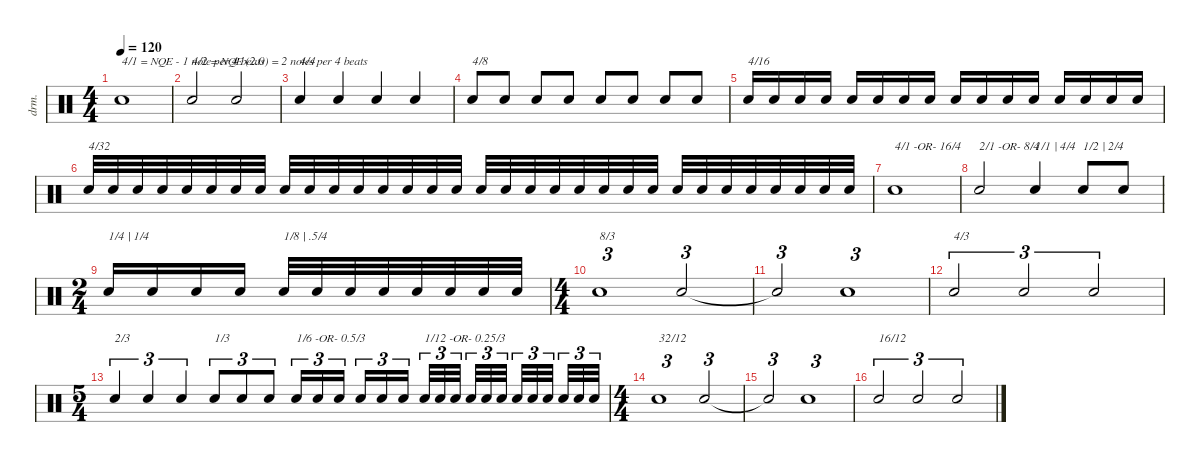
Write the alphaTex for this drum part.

\defaultSystemsLayout 4
\hideDynamics
\bracketExtendMode nobrackets
\otherSystemsTrackNameOrientation horizontal
\track ("Drumkit" "drm.") {instrument percussion}
\staff {score}
\articulation defaults
\ts (4 4)
\tempo 120
\clef neutral
\ks c "Snare (hit) 2".1{txt "4/1 = NQE - 1 note per 4 beats" dy mf beam Up}
|
"Snare (hit) 2".2{txt "4/2 = NQE (2.0) = 2 notes per 4 beats" beam Up} "Snare (hit) 2".2{beam Up} |
"Snare (hit) 2".4{txt "4/4" beam Up} "Snare (hit) 2".4{beam Up} "Snare (hit) 2".4{beam Up} "Snare (hit) 2".4{beam Up} |
"Snare (hit) 2".8{txt "4/8" beam Up} "Snare (hit) 2".8{beam Up} "Snare (hit) 2".8{beam Up} "Snare (hit) 2".8{beam Up} "Snare (hit) 2".8{beam Up} "Snare (hit) 2".8{beam Up} "Snare (hit) 2".8{beam Up} "Snare (hit) 2".8{beam Up} |
"Snare (hit) 2".16{txt "4/16" beam Up} "Snare (hit) 2".16{beam Up} "Snare (hit) 2".16{beam Up} "Snare (hit) 2".16{beam Up} "Snare (hit) 2".16{beam Up} "Snare (hit) 2".16{beam Up} "Snare (hit) 2".16{beam Up} "Snare (hit) 2".16{beam Up} "Snare (hit) 2".16{beam Up} "Snare (hit) 2".16{beam Up} "Snare (hit) 2".16{beam Up} "Snare (hit) 2".16{beam Up} "Snare (hit) 2".16{beam Up} "Snare (hit) 2".16{beam Up} "Snare (hit) 2".16{beam Up} "Snare (hit) 2".16{beam Up} |
"Snare (hit) 2".32{txt "4/32" beam Up} "Snare (hit) 2".32{beam Up} "Snare (hit) 2".32{beam Up} "Snare (hit) 2".32{beam Up} "Snare (hit) 2".32{beam Up} "Snare (hit) 2".32{beam Up} "Snare (hit) 2".32{beam Up} "Snare (hit) 2".32{beam Up} "Snare (hit) 2".32{beam Up} "Snare (hit) 2".32{beam Up} "Snare (hit) 2".32{beam Up} "Snare (hit) 2".32{beam Up} "Snare (hit) 2".32{beam Up} "Snare (hit) 2".32{beam Up} "Snare (hit) 2".32{beam Up} "Snare (hit) 2".32{beam Up} "Snare (hit) 2".32{beam Up} "Snare (hit) 2".32{beam Up} "Snare (hit) 2".32{beam Up} "Snare (hit) 2".32{beam Up} "Snare (hit) 2".32{beam Up} "Snare (hit) 2".32{beam Up} "Snare (hit) 2".32{beam Up} "Snare (hit) 2".32{beam Up} "Snare (hit) 2".32{beam Up} "Snare (hit) 2".32{beam Up} "Snare (hit) 2".32{beam Up} "Snare (hit) 2".32{beam Up} "Snare (hit) 2".32{beam Up} "Snare (hit) 2".32{beam Up} "Snare (hit) 2".32{beam Up} "Snare (hit) 2".32{beam Up} |
"Snare (hit) 2".1{txt "4/1 -OR- 16/4" beam Up} |
"Snare (hit) 2".2{txt "2/1 -OR- 8/4" beam Up} "Snare (hit) 2".4{txt "1/1 | 4/4" beam Up} "Snare (hit) 2".8{txt "1/2 | 2/4" beam Up} "Snare (hit) 2".8{beam Up} |
\ts (2 4)
\beaming (8 2 2)
"Snare (hit) 2".16{txt "1/4 | 1/4" beam Up} "Snare (hit) 2".16{beam Up} "Snare (hit) 2".16{beam Up} "Snare (hit) 2".16{beam Up} "Snare (hit) 2".32{txt "1/8 | .5/4" beam Up} "Snare (hit) 2".32{beam Up} "Snare (hit) 2".32{beam Up} "Snare (hit) 2".32{beam Up} "Snare (hit) 2".32{beam Up} "Snare (hit) 2".32{beam Up} "Snare (hit) 2".32{beam Up} "Snare (hit) 2".32{beam Up} |
\ts (4 4)
"Snare (hit) 2".1{tu (3 2) txt "8/3" beam Up} "Snare (hit) 2".2{tu (3 2) beam Up} |
"Snare (hit) 2"{t}.2{tu (3 2) beam Up} "Snare (hit) 2".1{tu (3 2) beam Up} |
"Snare (hit) 2".2{tu (3 2) txt "4/3" beam Up} "Snare (hit) 2".2{tu (3 2) beam Up} "Snare (hit) 2".2{tu (3 2) beam Up} |
\ts (5 4)
\beaming (8 6 4)
"Snare (hit) 2".4{tu (3 2) txt "2/3" beam Up} "Snare (hit) 2".4{tu (3 2) beam Up} "Snare (hit) 2".4{tu (3 2) beam Up} "Snare (hit) 2".8{tu (3 2) txt "1/3" beam Up} "Snare (hit) 2".8{tu (3 2) beam Up} "Snare (hit) 2".8{tu (3 2) beam Up} "Snare (hit) 2".16{tu (3 2) txt "1/6 -OR- 0.5/3" beam Up} "Snare (hit) 2".16{tu (3 2) beam Up} "Snare (hit) 2".16{tu (3 2) beam Up} "Snare (hit) 2".16{tu (3 2) beam Up} "Snare (hit) 2".16{tu (3 2) beam Up} "Snare (hit) 2".16{tu (3 2) beam Up} "Snare (hit) 2".32{tu (3 2) txt "1/12 -OR- 0.25/3" beam Up} "Snare (hit) 2".32{tu (3 2) beam Up} "Snare (hit) 2".32{tu (3 2) beam Up} "Snare (hit) 2".32{tu (3 2) beam Up} "Snare (hit) 2".32{tu (3 2) beam Up} "Snare (hit) 2".32{tu (3 2) beam Up} "Snare (hit) 2".32{tu (3 2) beam Up} "Snare (hit) 2".32{tu (3 2) beam Up} "Snare (hit) 2".32{tu (3 2) beam Up} "Snare (hit) 2".32{tu (3 2) beam Up} "Snare (hit) 2".32{tu (3 2) beam Up} "Snare (hit) 2".32{tu (3 2) beam Up} |
\ts (4 4)
"Snare (hit) 2".1{tu (3 2) txt "32/12" beam Up} "Snare (hit) 2".2{tu (3 2) beam Up} |
"Snare (hit) 2"{t}.2{tu (3 2) beam Up} "Snare (hit) 2".1{tu (3 2) beam Up} |
"Snare (hit) 2".2{tu (3 2) txt "16/12" beam Up} "Snare (hit) 2".2{tu (3 2) beam Up} "Snare (hit) 2".2{tu (3 2) beam Up}
